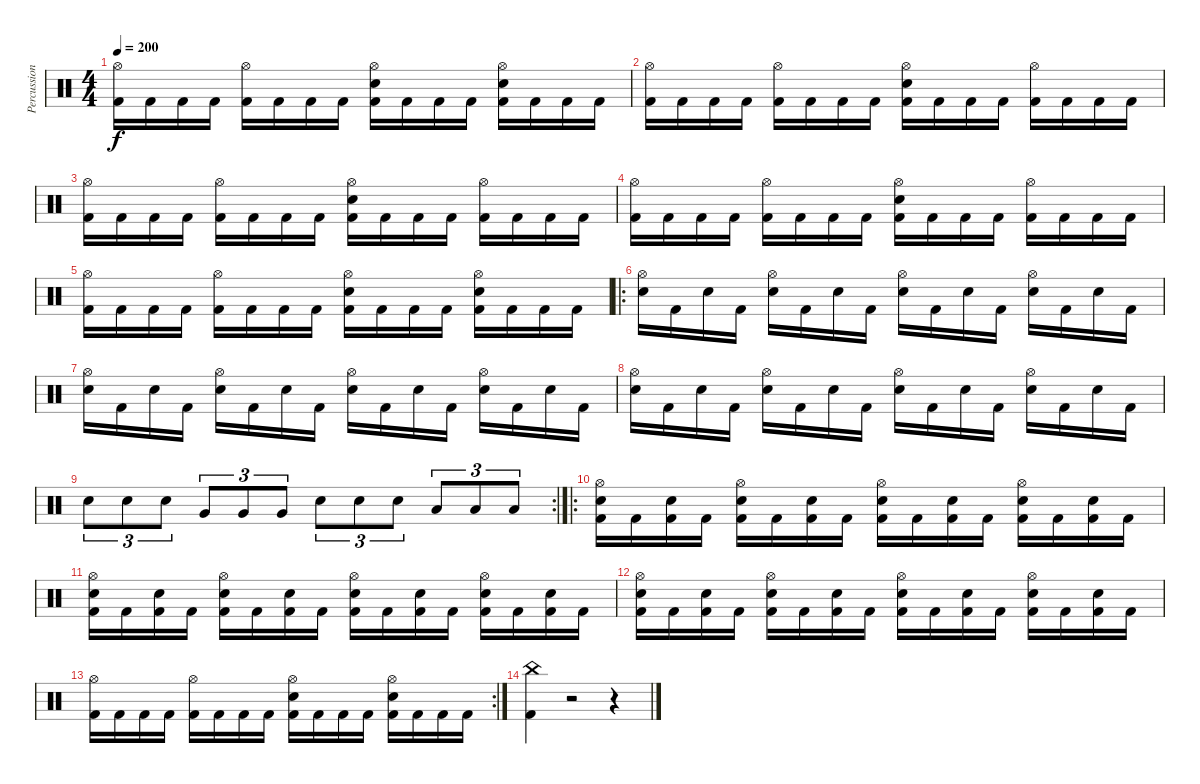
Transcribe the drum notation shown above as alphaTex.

\track ("Percussions" "Percussion") {instrument percussion}
\staff {score}
\articulation defaults
\ts (4 4)
\tempo 200
\clef neutral
\ks c
("Hi-Hat (open)" "Kick (hit) 2").16{dy f} "Kick (hit) 2".16 "Kick (hit) 2".16 "Kick (hit) 2".16 ("Hi-Hat (open)" "Kick (hit) 2").16 "Kick (hit) 2".16 "Kick (hit) 2".16 "Kick (hit) 2".16 ("Hi-Hat (open)" "Snare (hit) 2" "Kick (hit) 2").16 "Kick (hit) 2".16 "Kick (hit) 2".16 "Kick (hit) 2".16 ("Hi-Hat (open)" "Snare (hit) 2" "Kick (hit) 2").16 "Kick (hit) 2".16 "Kick (hit) 2".16 "Kick (hit) 2".16 |
("Hi-Hat (open)" "Kick (hit) 2").16 "Kick (hit) 2".16 "Kick (hit) 2".16 "Kick (hit) 2".16 ("Hi-Hat (open)" "Kick (hit) 2").16 "Kick (hit) 2".16 "Kick (hit) 2".16 "Kick (hit) 2".16 ("Hi-Hat (open)" "Snare (hit) 2" "Kick (hit) 2").16 "Kick (hit) 2".16 "Kick (hit) 2".16 "Kick (hit) 2".16 ("Hi-Hat (open)" "Kick (hit) 2").16 "Kick (hit) 2".16 "Kick (hit) 2".16 "Kick (hit) 2".16 |
("Hi-Hat (open)" "Kick (hit) 2").16 "Kick (hit) 2".16 "Kick (hit) 2".16 "Kick (hit) 2".16 ("Hi-Hat (open)" "Kick (hit) 2").16 "Kick (hit) 2".16 "Kick (hit) 2".16 "Kick (hit) 2".16 ("Hi-Hat (open)" "Snare (hit) 2" "Kick (hit) 2").16 "Kick (hit) 2".16 "Kick (hit) 2".16 "Kick (hit) 2".16 ("Hi-Hat (open)" "Kick (hit) 2").16 "Kick (hit) 2".16 "Kick (hit) 2".16 "Kick (hit) 2".16 |
("Hi-Hat (open)" "Kick (hit) 2").16 "Kick (hit) 2".16 "Kick (hit) 2".16 "Kick (hit) 2".16 ("Hi-Hat (open)" "Kick (hit) 2").16 "Kick (hit) 2".16 "Kick (hit) 2".16 "Kick (hit) 2".16 ("Hi-Hat (open)" "Snare (hit) 2" "Kick (hit) 2").16 "Kick (hit) 2".16 "Kick (hit) 2".16 "Kick (hit) 2".16 ("Hi-Hat (open)" "Kick (hit) 2").16 "Kick (hit) 2".16 "Kick (hit) 2".16 "Kick (hit) 2".16 |
("Hi-Hat (open)" "Kick (hit) 2").16 "Kick (hit) 2".16 "Kick (hit) 2".16 "Kick (hit) 2".16 ("Hi-Hat (open)" "Kick (hit) 2").16 "Kick (hit) 2".16 "Kick (hit) 2".16 "Kick (hit) 2".16 ("Hi-Hat (open)" "Snare (hit) 2" "Kick (hit) 2").16 "Kick (hit) 2".16 "Kick (hit) 2".16 "Kick (hit) 2".16 ("Hi-Hat (open)" "Snare (hit) 2" "Kick (hit) 2").16 "Kick (hit) 2".16 "Kick (hit) 2".16 "Kick (hit) 2".16 |
\ro
("Hi-Hat (open)" "Snare (hit) 2").16 "Kick (hit) 2".16 "Snare (hit) 2".16 "Kick (hit) 2".16 ("Hi-Hat (open)" "Snare (hit) 2").16 "Kick (hit) 2".16 "Snare (hit) 2".16 "Kick (hit) 2".16 ("Hi-Hat (open)" "Snare (hit) 2").16 "Kick (hit) 2".16 "Snare (hit) 2".16 "Kick (hit) 2".16 ("Hi-Hat (open)" "Snare (hit) 2").16 "Kick (hit) 2".16 "Snare (hit) 2".16 "Kick (hit) 2".16 |
("Hi-Hat (open)" "Snare (hit) 2").16 "Kick (hit) 2".16 "Snare (hit) 2".16 "Kick (hit) 2".16 ("Hi-Hat (open)" "Snare (hit) 2").16 "Kick (hit) 2".16 "Snare (hit) 2".16 "Kick (hit) 2".16 ("Hi-Hat (open)" "Snare (hit) 2").16 "Kick (hit) 2".16 "Snare (hit) 2".16 "Kick (hit) 2".16 ("Hi-Hat (open)" "Snare (hit) 2").16 "Kick (hit) 2".16 "Snare (hit) 2".16 "Kick (hit) 2".16 |
("Hi-Hat (open)" "Snare (hit) 2").16 "Kick (hit) 2".16 "Snare (hit) 2".16 "Kick (hit) 2".16 ("Hi-Hat (open)" "Snare (hit) 2").16 "Kick (hit) 2".16 "Snare (hit) 2".16 "Kick (hit) 2".16 ("Hi-Hat (open)" "Snare (hit) 2").16 "Kick (hit) 2".16 "Snare (hit) 2".16 "Kick (hit) 2".16 ("Hi-Hat (open)" "Snare (hit) 2").16 "Kick (hit) 2".16 "Snare (hit) 2".16 "Kick (hit) 2".16 |
\rc 2 "Snare (hit) 2".8{tu (3 2)} "Snare (hit) 2".8{tu (3 2)} "Snare (hit) 2".8{tu (3 2)} "Very Low Tom (hit)".8{tu (3 2)} "Very Low Tom (hit)".8{tu (3 2)} "Very Low Tom (hit)".8{tu (3 2)} "Snare (hit) 2".8{tu (3 2)} "Snare (hit) 2".8{tu (3 2)} "Snare (hit) 2".8{tu (3 2)} "Low Tom (hit)".8{tu (3 2)} "Low Tom (hit)".8{tu (3 2)} "Low Tom (hit)".8{tu (3 2)}
|
\ro
("Hi-Hat (open)" "Snare (hit) 2" "Kick (hit) 2").16 "Kick (hit) 2".16 ("Snare (hit) 2" "Kick (hit) 2").16 "Kick (hit) 2".16 ("Hi-Hat (open)" "Snare (hit) 2" "Kick (hit) 2").16 "Kick (hit) 2".16 ("Snare (hit) 2" "Kick (hit) 2").16 "Kick (hit) 2".16 ("Hi-Hat (open)" "Snare (hit) 2" "Kick (hit) 2").16 "Kick (hit) 2".16 ("Snare (hit) 2" "Kick (hit) 2").16 "Kick (hit) 2".16 ("Hi-Hat (open)" "Snare (hit) 2" "Kick (hit) 2").16 "Kick (hit) 2".16 ("Snare (hit) 2" "Kick (hit) 2").16 "Kick (hit) 2".16 |
("Hi-Hat (open)" "Snare (hit) 2" "Kick (hit) 2").16 "Kick (hit) 2".16 ("Snare (hit) 2" "Kick (hit) 2").16 "Kick (hit) 2".16 ("Hi-Hat (open)" "Snare (hit) 2" "Kick (hit) 2").16 "Kick (hit) 2".16 ("Snare (hit) 2" "Kick (hit) 2").16 "Kick (hit) 2".16 ("Hi-Hat (open)" "Snare (hit) 2" "Kick (hit) 2").16 "Kick (hit) 2".16 ("Snare (hit) 2" "Kick (hit) 2").16 "Kick (hit) 2".16 ("Hi-Hat (open)" "Snare (hit) 2" "Kick (hit) 2").16 "Kick (hit) 2".16 ("Snare (hit) 2" "Kick (hit) 2").16 "Kick (hit) 2".16 |
("Hi-Hat (open)" "Snare (hit) 2" "Kick (hit) 2").16 "Kick (hit) 2".16 ("Snare (hit) 2" "Kick (hit) 2").16 "Kick (hit) 2".16 ("Hi-Hat (open)" "Snare (hit) 2" "Kick (hit) 2").16 "Kick (hit) 2".16 ("Snare (hit) 2" "Kick (hit) 2").16 "Kick (hit) 2".16 ("Hi-Hat (open)" "Snare (hit) 2" "Kick (hit) 2").16 "Kick (hit) 2".16 ("Snare (hit) 2" "Kick (hit) 2").16 "Kick (hit) 2".16 ("Hi-Hat (open)" "Snare (hit) 2" "Kick (hit) 2").16 "Kick (hit) 2".16 ("Snare (hit) 2" "Kick (hit) 2").16 "Kick (hit) 2".16 |
\rc 2
("Hi-Hat (open)" "Kick (hit) 2").16 "Kick (hit) 2".16 "Kick (hit) 2".16 "Kick (hit) 2".16 ("Hi-Hat (open)" "Kick (hit) 2").16 "Kick (hit) 2".16 "Kick (hit) 2".16 "Kick (hit) 2".16 ("Hi-Hat (open)" "Snare (hit) 2" "Kick (hit) 2").16 "Kick (hit) 2".16 "Kick (hit) 2".16 "Kick (hit) 2".16 ("Hi-Hat (open)" "Snare (hit) 2" "Kick (hit) 2").16 "Kick (hit) 2".16 "Kick (hit) 2".16 "Kick (hit) 2".16 |
("China (hit)" "Kick (hit) 2").4 r.2 r.4
